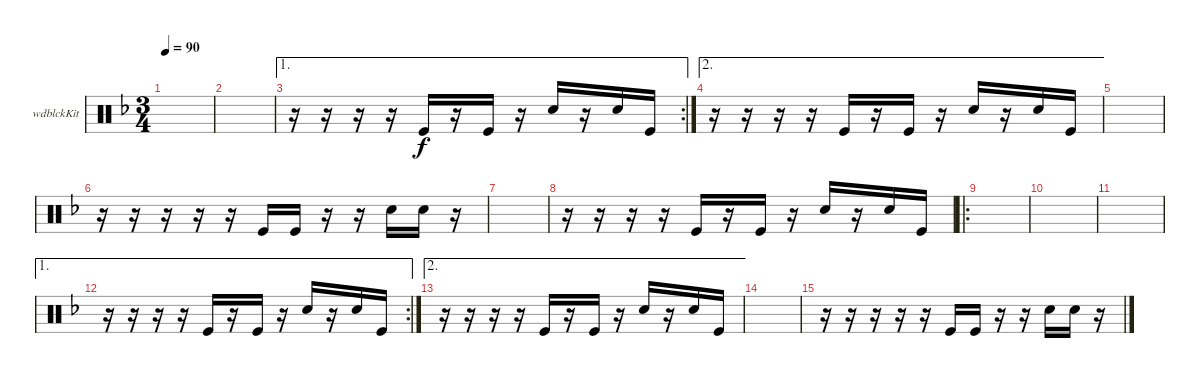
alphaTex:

\defaultSystemsLayout 4
\bracketExtendMode groupsimilarinstruments
\firstSystemTrackNameOrientation horizontal
\otherSystemsTrackNameOrientation horizontal
\track ("Woodblock" "wdblckKit") {instrument percussion}
\staff {score}
\articulation defaults
\ts (3 4)
\tempo 90
\clef neutral
\ks dminor
|
|
\ae 1
\rc 2
r.16 r.16 r.16 r.16 "Kick (hit)".16 r.16 "Kick (hit)".16 r.16 "Snare (hit) 2".16 r.16 "Snare (hit) 2".16 "Kick (hit)".16 |
\ae 2
r.16 r.16 r.16 r.16 "Kick (hit)".16 r.16 "Kick (hit)".16 r.16 "Snare (hit) 2".16 r.16 "Snare (hit) 2".16 "Kick (hit)".16 |
|
r.16 r.16 r.16 r.16 r.16 "Kick (hit)".16 "Kick (hit)".16 r.16 r.16 "Snare (hit) 2".16 "Snare (hit) 2".16 r.16 |
|
r.16 r.16 r.16 r.16 "Kick (hit)".16 r.16 "Kick (hit)".16 r.16 "Snare (hit) 2".16 r.16 "Snare (hit) 2".16 "Kick (hit)".16 |
\ro
|
|
|
\ae 1
\rc 2
r.16 r.16 r.16 r.16 "Kick (hit)".16 r.16 "Kick (hit)".16 r.16 "Snare (hit) 2".16 r.16 "Snare (hit) 2".16 "Kick (hit)".16 |
\ae 2
r.16 r.16 r.16 r.16 "Kick (hit)".16 r.16 "Kick (hit)".16 r.16 "Snare (hit) 2".16 r.16 "Snare (hit) 2".16 "Kick (hit)".16 |
|
r.16 r.16 r.16 r.16 r.16 "Kick (hit)".16 "Kick (hit)".16 r.16 r.16 "Snare (hit) 2".16 "Snare (hit) 2".16 r.16
